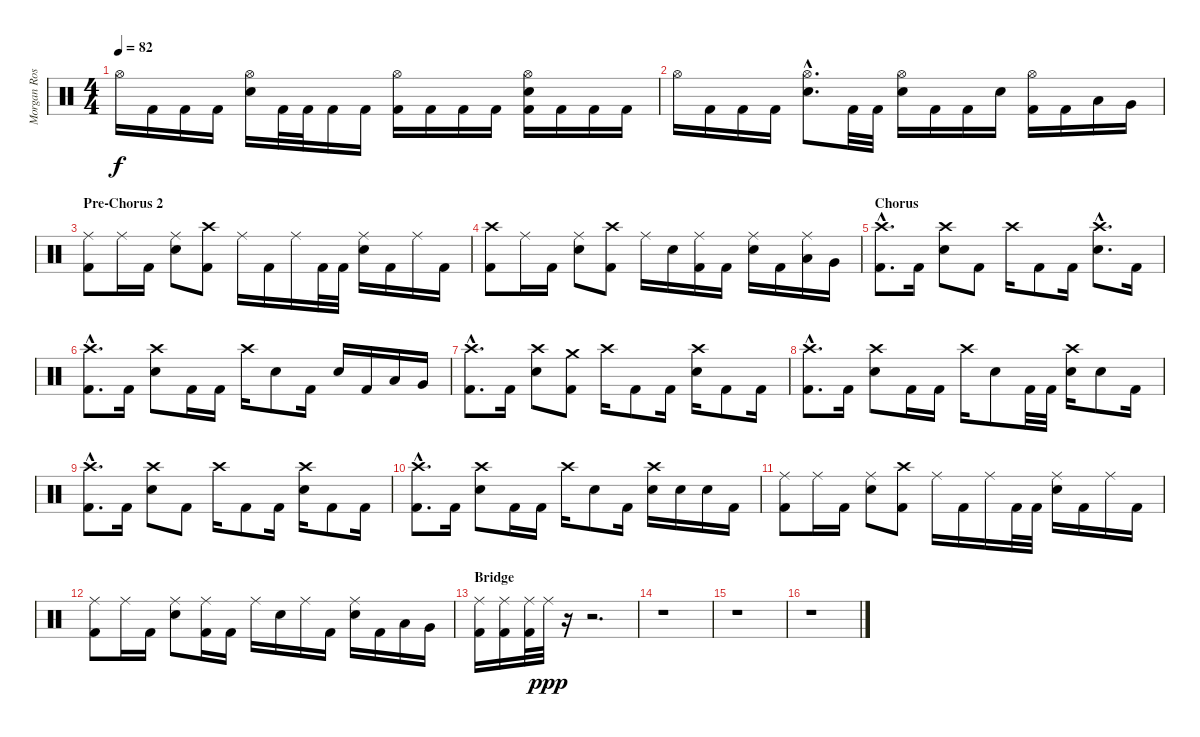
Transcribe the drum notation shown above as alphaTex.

\track ("Morgan Rose" "Morgan Ros") {instrument percussion}
\staff {score}
\articulation defaults
\ts (4 4)
\tempo 82
\clef neutral
\ks c "Hi-Hat (open)".16{dy f} "Kick (hit) 2".16 "Kick (hit) 2".16 "Kick (hit) 2".16
("Hi-Hat (open)" "Electric Snare (hit)").16 "Kick (hit) 2".32 "Kick (hit) 2".32 "Kick (hit) 2".16 "Kick (hit) 2".16 ("Hi-Hat (open)" "Kick (hit) 2").16 "Kick (hit) 2".16 "Kick (hit) 2".16 "Kick (hit) 2".16 ("Hi-Hat (open)" "Electric Snare (hit)" "Kick (hit) 2").16 "Kick (hit) 2".16 "Kick (hit) 2".16 "Kick (hit) 2".16 |
"Hi-Hat (open)".16 "Kick (hit) 2".16 "Kick (hit) 2".16 "Kick (hit) 2".16 ("Hi-Hat (open)"{hac} "Electric Snare (hit)"{hac}).8{d} "Kick (hit) 2".32 "Kick (hit) 2".32 ("Hi-Hat (open)" "Electric Snare (hit)").16 "Kick (hit) 2".16 "Kick (hit) 2".16 "Electric Snare (hit)".16 ("Hi-Hat (open)" "Kick (hit) 2").16 "Kick (hit) 2".16 "Low Tom (hit)".16 "Very Low Tom (hit)".16 |
\section ("" "Pre-Chorus 2")
("Ride (middle)" "Kick (hit) 2").8 "Ride (middle)".16 "Kick (hit) 2".16 ("Ride (middle)" "Electric Snare (hit)").8 ("Crash high (hit)" "Kick (hit) 2").8 "Ride (middle)".16 "Kick (hit) 2".16 "Ride (middle)".16 "Kick (hit) 2".32 "Kick (hit) 2".32 ("Ride (middle)" "Electric Snare (hit)").16 "Kick (hit) 2".16 "Ride (middle)".16 "Kick (hit) 2".16 |
("Crash high (hit)" "Kick (hit) 2").8 "Ride (middle)".16 "Kick (hit) 2".16 ("Ride (middle)" "Electric Snare (hit)").8 ("Crash high (hit)" "Kick (hit) 2").8 "Ride (middle)".16 "Electric Snare (hit)".16 ("Ride (middle)" "Kick (hit) 2").16 "Kick (hit) 2".16 ("Ride (middle)" "Electric Snare (hit)").16 "Kick (hit) 2".16 ("Ride (middle)" "Low Tom (hit)").16 "Very Low Tom (hit)".16 |
\section ("" "Chorus")
("Crash high (hit)"{hac} "Kick (hit) 2"{hac}).8{d} "Kick (hit) 2".16 ("Crash high (hit)" "Electric Snare (hit)").8 "Kick (hit) 2".8 "Crash high (hit)".16 "Kick (hit) 2".8 "Kick (hit) 2".16 ("Crash high (hit)"{hac} "Electric Snare (hit)"{hac}).8{d} "Kick (hit) 2".16 |
("Crash high (hit)"{hac} "Kick (hit) 2"{hac}).8{d} "Kick (hit) 2".16 ("Crash high (hit)" "Electric Snare (hit)").8 "Kick (hit) 2".16 "Kick (hit) 2".16 "Crash high (hit)".16 "Electric Snare (hit)".8 "Kick (hit) 2".16 "Electric Snare (hit)".16 "Kick (hit) 2".16 "Low Tom (hit)".16 "Very Low Tom (hit)".16 |
("Crash high (hit)"{hac} "Kick (hit) 2"{hac}).8{d} "Kick (hit) 2".16 ("Crash high (hit)" "Electric Snare (hit)").8 ("Crash medium (hit)" "Kick (hit) 2").8 "Crash high (hit)".16 "Kick (hit) 2".8 "Kick (hit) 2".16 ("Crash high (hit)" "Electric Snare (hit)").16 "Kick (hit) 2".8 "Kick (hit) 2".16 |
("Crash high (hit)"{hac} "Kick (hit) 2"{hac}).8{d} "Kick (hit) 2".16 ("Crash high (hit)" "Electric Snare (hit)").8 "Kick (hit) 2".16 "Kick (hit) 2".16 "Crash high (hit)".16 "Electric Snare (hit)".8 "Kick (hit) 2".32 "Kick (hit) 2".32 ("Crash high (hit)" "Electric Snare (hit)").16 "Electric Snare (hit)".8 "Kick (hit) 2".16 |
("Crash high (hit)"{hac} "Kick (hit) 2"{hac}).8{d} "Kick (hit) 2".16 ("Crash high (hit)" "Electric Snare (hit)").8 "Kick (hit) 2".8 "Crash high (hit)".16 "Kick (hit) 2".8 "Kick (hit) 2".16 ("Crash high (hit)" "Electric Snare (hit)").16 "Kick (hit) 2".8 "Kick (hit) 2".16 |
("Crash high (hit)"{hac} "Kick (hit) 2"{hac}).8{d} "Kick (hit) 2".16 ("Crash high (hit)" "Electric Snare (hit)").8 "Kick (hit) 2".16 "Kick (hit) 2".16 "Crash high (hit)".16 "Electric Snare (hit)".8 "Kick (hit) 2".16 ("Crash high (hit)" "Electric Snare (hit)").16 "Electric Snare (hit)".16 "Electric Snare (hit)".16 "Kick (hit) 2".16 |
("Ride (middle)" "Kick (hit) 2").8 "Ride (middle)".16 "Kick (hit) 2".16 ("Ride (middle)" "Electric Snare (hit)").8 ("Crash high (hit)" "Kick (hit) 2").8 "Ride (middle)".16 "Kick (hit) 2".16 "Ride (middle)".16 "Kick (hit) 2".32 "Kick (hit) 2".32 ("Ride (middle)" "Electric Snare (hit)").16 "Kick (hit) 2".16 "Ride (middle)".16 "Kick (hit) 2".16 |
("Ride (middle)" "Kick (hit) 2").8 "Ride (middle)".16 "Kick (hit) 2".16 ("Ride (middle)" "Electric Snare (hit)").8 ("Ride (middle)" "Kick (hit) 2").16 "Kick (hit) 2".16 "Ride (middle)".16 "Electric Snare (hit)".16 "Ride (middle)".16 "Kick (hit) 2".16 ("Ride (middle)" "Electric Snare (hit)").16 "Kick (hit) 2".16 "Low Tom (hit)".16 "Very Low Tom (hit)".16 |
\section ("" "Bridge")
("Ride (middle)" "Kick (hit) 2").16 ("Ride (middle)" "Kick (hit) 2").16 ("Ride (middle)" "Kick (hit) 2").32 "Ride (middle)".32{dy ppp} r.16 r.2{d} |
r.1 |
r.1 |
r.1
